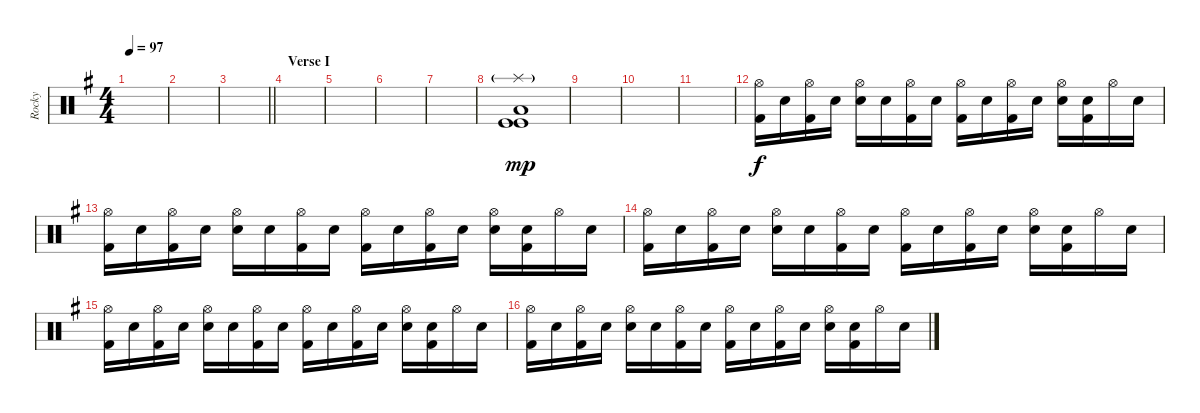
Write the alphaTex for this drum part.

\track ("Rocky" "Rocky") {instrument percussion}
\staff {score}
\articulation defaults
\ts (4 4)
\tempo 97
\clef neutral
\ks g
|
|
\barLineRight lightlight
|
\section ("" "Verse I")
|
|
|
|
("Splash (hit)"{g} "Low Tom (hit)" "Kick (hit)" "Kick (hit)").1{dy mp volume 10} |
|
|
|
("Hi-Hat (open)" "Kick (hit) 2").16{dy f} "Snare (hit)".16 ("Hi-Hat (open)" "Kick (hit) 2").16 "Snare (hit)".16 ("Hi-Hat (open)" "Snare (hit) 2").16 "Snare (hit)".16 ("Hi-Hat (open)" "Kick (hit) 2").16 "Snare (hit)".16 ("Hi-Hat (open)" "Kick (hit) 2").16 "Snare (hit)".16 ("Hi-Hat (open)" "Kick (hit) 2").16 "Snare (hit)".16 ("Hi-Hat (open)" "Snare (hit) 2").16 ("Snare (hit)" "Kick (hit) 2").16 "Hi-Hat (open)".16 "Snare (hit)".16 |
("Hi-Hat (open)" "Kick (hit) 2").16 "Snare (hit)".16 ("Hi-Hat (open)" "Kick (hit) 2").16 "Snare (hit)".16 ("Hi-Hat (open)" "Snare (hit) 2").16 "Snare (hit)".16 ("Hi-Hat (open)" "Kick (hit) 2").16 "Snare (hit)".16 ("Hi-Hat (open)" "Kick (hit) 2").16 "Snare (hit)".16 ("Hi-Hat (open)" "Kick (hit) 2").16 "Snare (hit)".16 ("Hi-Hat (open)" "Snare (hit) 2").16 ("Snare (hit)" "Kick (hit) 2").16 "Hi-Hat (open)".16 "Snare (hit)".16 |
("Hi-Hat (open)" "Kick (hit) 2").16 "Snare (hit)".16 ("Hi-Hat (open)" "Kick (hit) 2").16 "Snare (hit)".16 ("Hi-Hat (open)" "Snare (hit) 2").16 "Snare (hit)".16 ("Hi-Hat (open)" "Kick (hit) 2").16 "Snare (hit)".16 ("Hi-Hat (open)" "Kick (hit) 2").16 "Snare (hit)".16 ("Hi-Hat (open)" "Kick (hit) 2").16 "Snare (hit)".16 ("Hi-Hat (open)" "Snare (hit) 2").16 ("Snare (hit)" "Kick (hit) 2").16 "Hi-Hat (open)".16 "Snare (hit)".16 |
("Hi-Hat (open)" "Kick (hit) 2").16 "Snare (hit)".16 ("Hi-Hat (open)" "Kick (hit) 2").16 "Snare (hit)".16 ("Hi-Hat (open)" "Snare (hit) 2").16 "Snare (hit)".16 ("Hi-Hat (open)" "Kick (hit) 2").16 "Snare (hit)".16 ("Hi-Hat (open)" "Kick (hit) 2").16 "Snare (hit)".16 ("Hi-Hat (open)" "Kick (hit) 2").16 "Snare (hit)".16 ("Hi-Hat (open)" "Snare (hit) 2").16 ("Snare (hit)" "Kick (hit) 2").16 "Hi-Hat (open)".16 "Snare (hit)".16 |
("Hi-Hat (open)" "Kick (hit) 2").16 "Snare (hit)".16 ("Hi-Hat (open)" "Kick (hit) 2").16 "Snare (hit)".16 ("Hi-Hat (open)" "Snare (hit) 2").16 "Snare (hit)".16 ("Hi-Hat (open)" "Kick (hit) 2").16 "Snare (hit)".16 ("Hi-Hat (open)" "Kick (hit) 2").16 "Snare (hit)".16 ("Hi-Hat (open)" "Kick (hit) 2").16 "Snare (hit)".16 ("Hi-Hat (open)" "Snare (hit) 2").16 ("Snare (hit)" "Kick (hit) 2").16 "Hi-Hat (open)".16 "Snare (hit)".16
